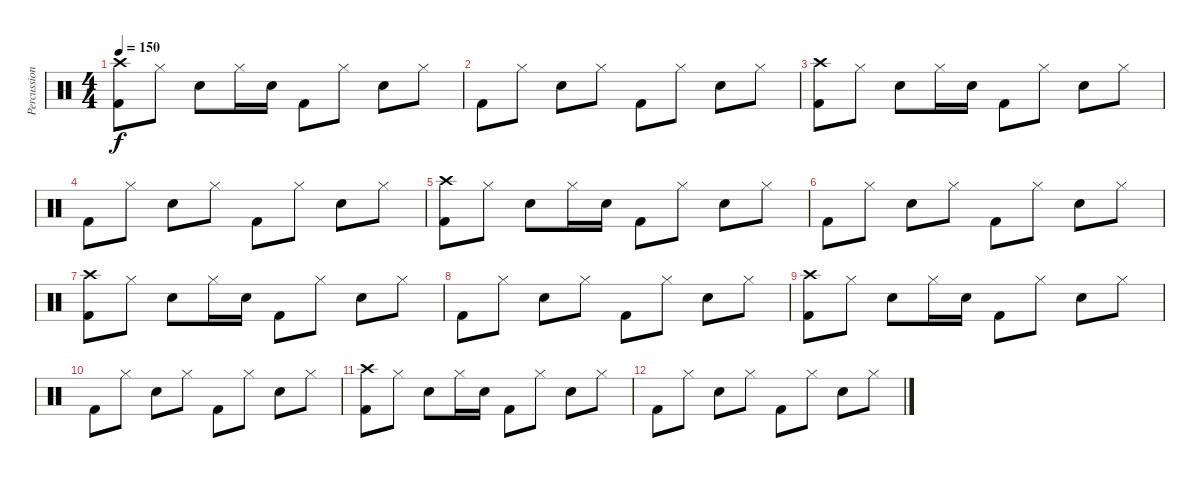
\track ("Percussion" "Percussion") {instrument percussion}
\staff {score}
\articulation defaults
\ts (4 4)
\tempo 150
\clef neutral
\ks c
("Crash high (hit)" "Kick (hit) 2").8{dy f} "Hi-Hat (closed)".8 "Electric Snare (hit)".8 "Hi-Hat (closed)".16 "Electric Snare (hit)".16 "Kick (hit) 2".8 "Hi-Hat (closed)".8 "Electric Snare (hit)".8 "Hi-Hat (closed)".8 |
"Kick (hit) 2".8 "Hi-Hat (closed)".8 "Electric Snare (hit)".8 "Hi-Hat (closed)".8 "Kick (hit) 2".8 "Hi-Hat (closed)".8 "Electric Snare (hit)".8 "Hi-Hat (closed)".8 |
("Crash high (hit)" "Kick (hit) 2").8 "Hi-Hat (closed)".8 "Electric Snare (hit)".8 "Hi-Hat (closed)".16 "Electric Snare (hit)".16 "Kick (hit) 2".8 "Hi-Hat (closed)".8 "Electric Snare (hit)".8 "Hi-Hat (closed)".8 |
"Kick (hit) 2".8 "Hi-Hat (closed)".8 "Electric Snare (hit)".8 "Hi-Hat (closed)".8 "Kick (hit) 2".8 "Hi-Hat (closed)".8 "Electric Snare (hit)".8 "Hi-Hat (closed)".8 |
("Crash high (hit)" "Kick (hit) 2").8 "Hi-Hat (closed)".8 "Electric Snare (hit)".8 "Hi-Hat (closed)".16 "Electric Snare (hit)".16 "Kick (hit) 2".8 "Hi-Hat (closed)".8 "Electric Snare (hit)".8 "Hi-Hat (closed)".8 |
"Kick (hit) 2".8 "Hi-Hat (closed)".8 "Electric Snare (hit)".8 "Hi-Hat (closed)".8 "Kick (hit) 2".8 "Hi-Hat (closed)".8 "Electric Snare (hit)".8 "Hi-Hat (closed)".8 |
("Crash high (hit)" "Kick (hit) 2").8 "Hi-Hat (closed)".8 "Electric Snare (hit)".8 "Hi-Hat (closed)".16 "Electric Snare (hit)".16 "Kick (hit) 2".8 "Hi-Hat (closed)".8 "Electric Snare (hit)".8 "Hi-Hat (closed)".8 |
"Kick (hit) 2".8 "Hi-Hat (closed)".8 "Electric Snare (hit)".8 "Hi-Hat (closed)".8 "Kick (hit) 2".8 "Hi-Hat (closed)".8 "Electric Snare (hit)".8 "Hi-Hat (closed)".8 |
("Crash high (hit)" "Kick (hit) 2").8 "Hi-Hat (closed)".8 "Electric Snare (hit)".8 "Hi-Hat (closed)".16 "Electric Snare (hit)".16 "Kick (hit) 2".8 "Hi-Hat (closed)".8 "Electric Snare (hit)".8 "Hi-Hat (closed)".8 |
"Kick (hit) 2".8 "Hi-Hat (closed)".8 "Electric Snare (hit)".8 "Hi-Hat (closed)".8 "Kick (hit) 2".8 "Hi-Hat (closed)".8 "Electric Snare (hit)".8 "Hi-Hat (closed)".8 |
("Crash high (hit)" "Kick (hit) 2").8 "Hi-Hat (closed)".8 "Electric Snare (hit)".8 "Hi-Hat (closed)".16 "Electric Snare (hit)".16 "Kick (hit) 2".8 "Hi-Hat (closed)".8 "Electric Snare (hit)".8 "Hi-Hat (closed)".8 |
"Kick (hit) 2".8 "Hi-Hat (closed)".8 "Electric Snare (hit)".8 "Hi-Hat (closed)".8 "Kick (hit) 2".8 "Hi-Hat (closed)".8 "Electric Snare (hit)".8 "Hi-Hat (closed)".8
